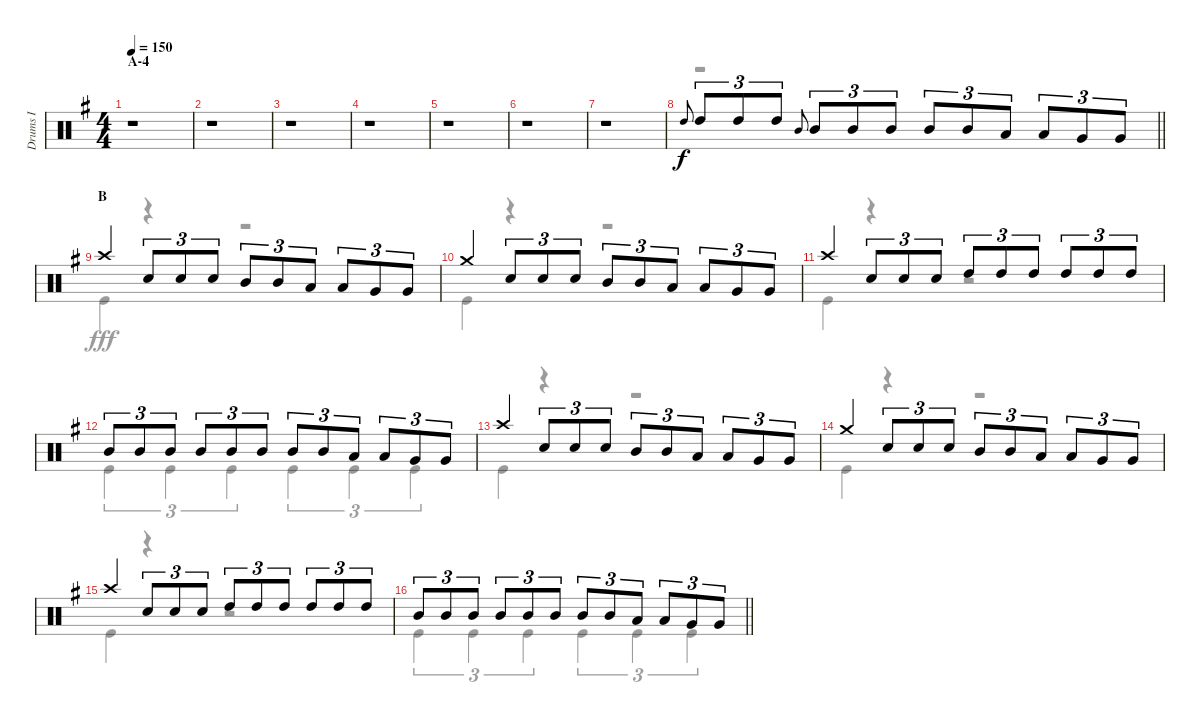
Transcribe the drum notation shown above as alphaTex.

\track ("Drums I" "Drums I") {instrument percussion}
\staff {score}
\articulation defaults
\voice
\ts (4 4)
\section ("" "A-4")
\tempo 150
\clef neutral
\ks g
r.1{dy f} |
r.1 |
r.1 |
r.1 |
r.1 |
r.1 |
r.1 |
\barLineRight lightlight "High Tom (hit)".8{gr onbeat} "High Tom (hit)".8{tu (3 2)} "High Tom (hit)".8{tu (3 2)} "High Tom (hit)".8{tu (3 2)} "Mid Tom (hit)".8{gr onbeat} "Mid Tom (hit)".8{tu (3 2)} "Mid Tom (hit)".8{tu (3 2)} "Mid Tom (hit)".8{tu (3 2)} "Mid Tom (hit)".8{tu (3 2)} "Mid Tom (hit)".8{tu (3 2)} "Low Tom (hit)".8{tu (3 2)} "Low Tom (hit)".8{tu (3 2)} "Very Low Tom (hit)".8{tu (3 2)} "Very Low Tom (hit)".8{tu (3 2)}
|
\section ("" "B")
"Crash high (hit)".4 "Snare (hit) 2".8{tu (3 2)} "Snare (hit) 2".8{tu (3 2)} "Snare (hit) 2".8{tu (3 2)} "Mid Tom (hit)".8{tu (3 2)} "Mid Tom (hit)".8{tu (3 2)} "Low Tom (hit)".8{tu (3 2)} "Low Tom (hit)".8{tu (3 2)} "Very Low Tom (hit)".8{tu (3 2)} "Very Low Tom (hit)".8{tu (3 2)} |
"Crash medium (hit)".4 "Snare (hit) 2".8{tu (3 2)} "Snare (hit) 2".8{tu (3 2)} "Snare (hit) 2".8{tu (3 2)} "Mid Tom (hit)".8{tu (3 2)} "Mid Tom (hit)".8{tu (3 2)} "Low Tom (hit)".8{tu (3 2)} "Low Tom (hit)".8{tu (3 2)} "Very Low Tom (hit)".8{tu (3 2)} "Very Low Tom (hit)".8{tu (3 2)} |
"Crash high (hit)".4 "Snare (hit) 2".8{tu (3 2)} "Snare (hit) 2".8{tu (3 2)} "Snare (hit) 2".8{tu (3 2)} "High Tom (hit)".8{tu (3 2)} "High Tom (hit)".8{tu (3 2)} "High Tom (hit)".8{tu (3 2)} "High Tom (hit)".8{tu (3 2)} "High Tom (hit)".8{tu (3 2)} "High Tom (hit)".8{tu (3 2)} |
"Mid Tom (hit)".8{tu (3 2)} "Mid Tom (hit)".8{tu (3 2)} "Mid Tom (hit)".8{tu (3 2)} "Mid Tom (hit)".8{tu (3 2)} "Mid Tom (hit)".8{tu (3 2)} "Mid Tom (hit)".8{tu (3 2)} "Mid Tom (hit)".8{tu (3 2)} "Mid Tom (hit)".8{tu (3 2)} "Low Tom (hit)".8{tu (3 2)} "Low Tom (hit)".8{tu (3 2)} "Very Low Tom (hit)".8{tu (3 2)} "Very Low Tom (hit)".8{tu (3 2)} |
"Crash high (hit)".4 "Snare (hit) 2".8{tu (3 2)} "Snare (hit) 2".8{tu (3 2)} "Snare (hit) 2".8{tu (3 2)} "Mid Tom (hit)".8{tu (3 2)} "Mid Tom (hit)".8{tu (3 2)} "Low Tom (hit)".8{tu (3 2)} "Low Tom (hit)".8{tu (3 2)} "Very Low Tom (hit)".8{tu (3 2)} "Very Low Tom (hit)".8{tu (3 2)} |
"Crash medium (hit)".4 "Snare (hit) 2".8{tu (3 2)} "Snare (hit) 2".8{tu (3 2)} "Snare (hit) 2".8{tu (3 2)} "Mid Tom (hit)".8{tu (3 2)} "Mid Tom (hit)".8{tu (3 2)} "Low Tom (hit)".8{tu (3 2)} "Low Tom (hit)".8{tu (3 2)} "Very Low Tom (hit)".8{tu (3 2)} "Very Low Tom (hit)".8{tu (3 2)} |
"Crash high (hit)".4 "Snare (hit) 2".8{tu (3 2)} "Snare (hit) 2".8{tu (3 2)} "Snare (hit) 2".8{tu (3 2)} "High Tom (hit)".8{tu (3 2)} "High Tom (hit)".8{tu (3 2)} "High Tom (hit)".8{tu (3 2)} "High Tom (hit)".8{tu (3 2)} "High Tom (hit)".8{tu (3 2)} "High Tom (hit)".8{tu (3 2)} |
\barLineRight lightlight "Mid Tom (hit)".8{tu (3 2)} "Mid Tom (hit)".8{tu (3 2)} "Mid Tom (hit)".8{tu (3 2)} "Mid Tom (hit)".8{tu (3 2)} "Mid Tom (hit)".8{tu (3 2)} "Mid Tom (hit)".8{tu (3 2)} "Mid Tom (hit)".8{tu (3 2)} "Mid Tom (hit)".8{tu (3 2)} "Low Tom (hit)".8{tu (3 2)} "Low Tom (hit)".8{tu (3 2)} "Very Low Tom (hit)".8{tu (3 2)} "Very Low Tom (hit)".8{tu (3 2)}
\voice
\clef neutral
\ottava regular
\simile none
\ks g
r.1{dy fff} |
r.1 |
r.1 |
r.1 |
r.1 |
r.1 |
r.1 |
\barLineRight lightlight
r.1 |
"Kick (hit)".4 r.4 r.2 |
"Kick (hit)".4 r.4 r.2 |
"Kick (hit)".4 r.4 r.2 |
"Kick (hit)".4{tu (3 2)} "Kick (hit)".4{tu (3 2)} "Kick (hit)".4{tu (3 2)} "Kick (hit)".4{tu (3 2)} "Kick (hit)".4{tu (3 2)} "Kick (hit)".4{tu (3 2)} |
"Kick (hit)".4 r.4 r.2 |
"Kick (hit)".4 r.4 r.2 |
"Kick (hit)".4 r.4 r.2 |
\barLineRight lightlight "Kick (hit)".4{tu (3 2)} "Kick (hit)".4{tu (3 2)} "Kick (hit)".4{tu (3 2)} "Kick (hit)".4{tu (3 2)} "Kick (hit)".4{tu (3 2)} "Kick (hit)".4{tu (3 2)}
